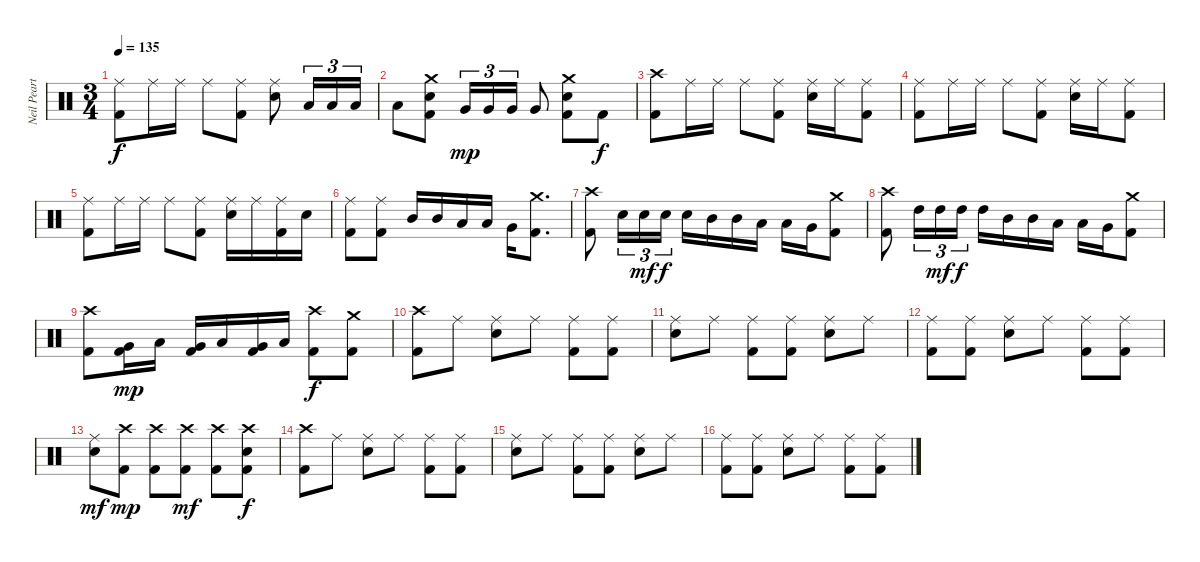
\track ("Neil Peart" "Neil Peart") {instrument percussion}
\staff {score}
\articulation defaults
\ts (3 4)
\tempo 135
\clef neutral
\ks c
("Ride (middle)" "Kick (hit) 2").8{dy f} "Ride (middle)".16 "Ride (middle)".16 "Ride (middle)".8 ("Ride (middle)" "Kick (hit) 2").8 ("Ride (middle)" "Snare (hit) 2").8 "Low Tom (hit)".16{tu (3 2)} "Low Tom (hit)".16{tu (3 2)} "Low Tom (hit)".16{tu (3 2)} |
"Low Tom (hit)".8 ("Crash medium (hit)" "Snare (hit) 2" "Kick (hit) 2").8 "Very Low Tom (hit)".16{tu (3 2) dy mp} "Very Low Tom (hit)".16{tu (3 2)} "Very Low Tom (hit)".16{tu (3 2)} "Very Low Tom (hit)".8 ("Crash medium (hit)" "Snare (hit) 2" "Kick (hit) 2").8 "Kick (hit) 2".8{dy f} |
("Crash high (hit)" "Kick (hit) 2").8 "Ride (middle)".16 "Ride (middle)".16 "Ride (middle)".8 ("Ride (middle)" "Kick (hit) 2").8 ("Ride (middle)" "Snare (hit) 2").16 "Ride (middle)".16 ("Ride (middle)" "Kick (hit) 2").8 |
("Ride (middle)" "Kick (hit) 2").8 "Ride (middle)".16 "Ride (middle)".16 "Ride (middle)".8 ("Ride (middle)" "Kick (hit) 2").8 ("Ride (middle)" "Snare (hit) 2").16 "Ride (middle)".16 ("Ride (middle)" "Kick (hit) 2").8 |
("Ride (middle)" "Kick (hit) 2").8 "Ride (middle)".16 "Ride (middle)".16 "Ride (middle)".8 ("Ride (middle)" "Kick (hit) 2").8 ("Ride (middle)" "Snare (hit) 2").16 "Ride (middle)".16 ("Ride (middle)" "Kick (hit) 2").16 "Snare (hit) 2".16 |
("Ride (middle)" "Kick (hit) 2").8 ("Ride (middle)" "Kick (hit) 2").8 "Mid Tom (hit)".16 "Mid Tom (hit)".16 "Low Tom (hit)".16 "Low Tom (hit)".16 "Very Low Tom (hit)".16 ("Crash medium (hit)" "Kick (hit) 2").8{d} |
("Crash high (hit)" "Kick (hit) 2").8 "Snare (hit) 2".16{tu (3 2)} "Snare (hit) 2".16{tu (3 2) dy mf} "Snare (hit) 2".16{tu (3 2) dy f} "Snare (hit) 2".16 "Mid Tom (hit)".16 "Mid Tom (hit)".16 "Low Tom (hit)".16 "Low Tom (hit)".16 "Very Low Tom (hit)".16 ("Crash medium (hit)" "Kick (hit) 2").8 |
("Crash high (hit)" "Kick (hit) 2").8 "High Tom (hit)".16{tu (3 2)} "High Tom (hit)".16{tu (3 2) dy mf} "High Tom (hit)".16{tu (3 2) dy f} "High Tom (hit)".16 "Mid Tom (hit)".16 "Mid Tom (hit)".16 "Low Tom (hit)".16 "Low Tom (hit)".16 "Very Low Tom (hit)".16 ("Crash medium (hit)" "Kick (hit) 2").8 |
("Crash high (hit)" "Kick (hit) 2").8 ("Very Low Tom (hit)" "Kick (hit) 2").16{dy mp} "Low Tom (hit)".16 ("Very Low Tom (hit)" "Kick (hit) 2").16 "Low Tom (hit)".16 ("Very Low Tom (hit)" "Kick (hit) 2").16 "Low Tom (hit)".16 ("Crash high (hit)" "Kick (hit) 2").8{dy f} ("Crash medium (hit)" "Kick (hit) 2").8 |
("Crash high (hit)" "Kick (hit) 2").8 "Ride (middle)".8 ("Ride (middle)" "Snare (hit) 2").8 "Ride (middle)".8 ("Ride (middle)" "Kick (hit) 2").8 ("Ride (middle)" "Kick (hit) 2").8 |
("Ride (middle)" "Snare (hit) 2").8 "Ride (middle)".8 ("Ride (middle)" "Kick (hit) 2").8 ("Ride (middle)" "Kick (hit) 2").8 ("Ride (middle)" "Snare (hit) 2").8 "Ride (middle)".8 |
("Ride (middle)" "Kick (hit) 2").8 ("Ride (middle)" "Kick (hit) 2").8 ("Ride (middle)" "Snare (hit) 2").8 "Ride (middle)".8 ("Ride (middle)" "Kick (hit) 2").8 ("Ride (middle)" "Kick (hit) 2").8 |
("Ride (middle)" "Snare (hit) 2").8{dy mf} ("Crash high (hit)" "Kick (hit) 2").8{dy mp} ("Crash high (hit)" "Kick (hit) 2").8 ("Crash high (hit)" "Kick (hit) 2").8{dy mf} ("Crash high (hit)" "Kick (hit) 2").8 ("Crash high (hit)" "Snare (hit) 2" "Kick (hit) 2").8{dy f} |
("Crash high (hit)" "Kick (hit) 2").8 "Ride (middle)".8 ("Ride (middle)" "Snare (hit) 2").8 "Ride (middle)".8 ("Ride (middle)" "Kick (hit) 2").8 ("Ride (middle)" "Kick (hit) 2").8 |
("Ride (middle)" "Snare (hit) 2").8 "Ride (middle)".8 ("Ride (middle)" "Kick (hit) 2").8 ("Ride (middle)" "Kick (hit) 2").8 ("Ride (middle)" "Snare (hit) 2").8 "Ride (middle)".8 |
("Ride (middle)" "Kick (hit) 2").8 ("Ride (middle)" "Kick (hit) 2").8 ("Ride (middle)" "Snare (hit) 2").8 "Ride (middle)".8 ("Ride (middle)" "Kick (hit) 2").8 ("Ride (middle)" "Kick (hit) 2").8
